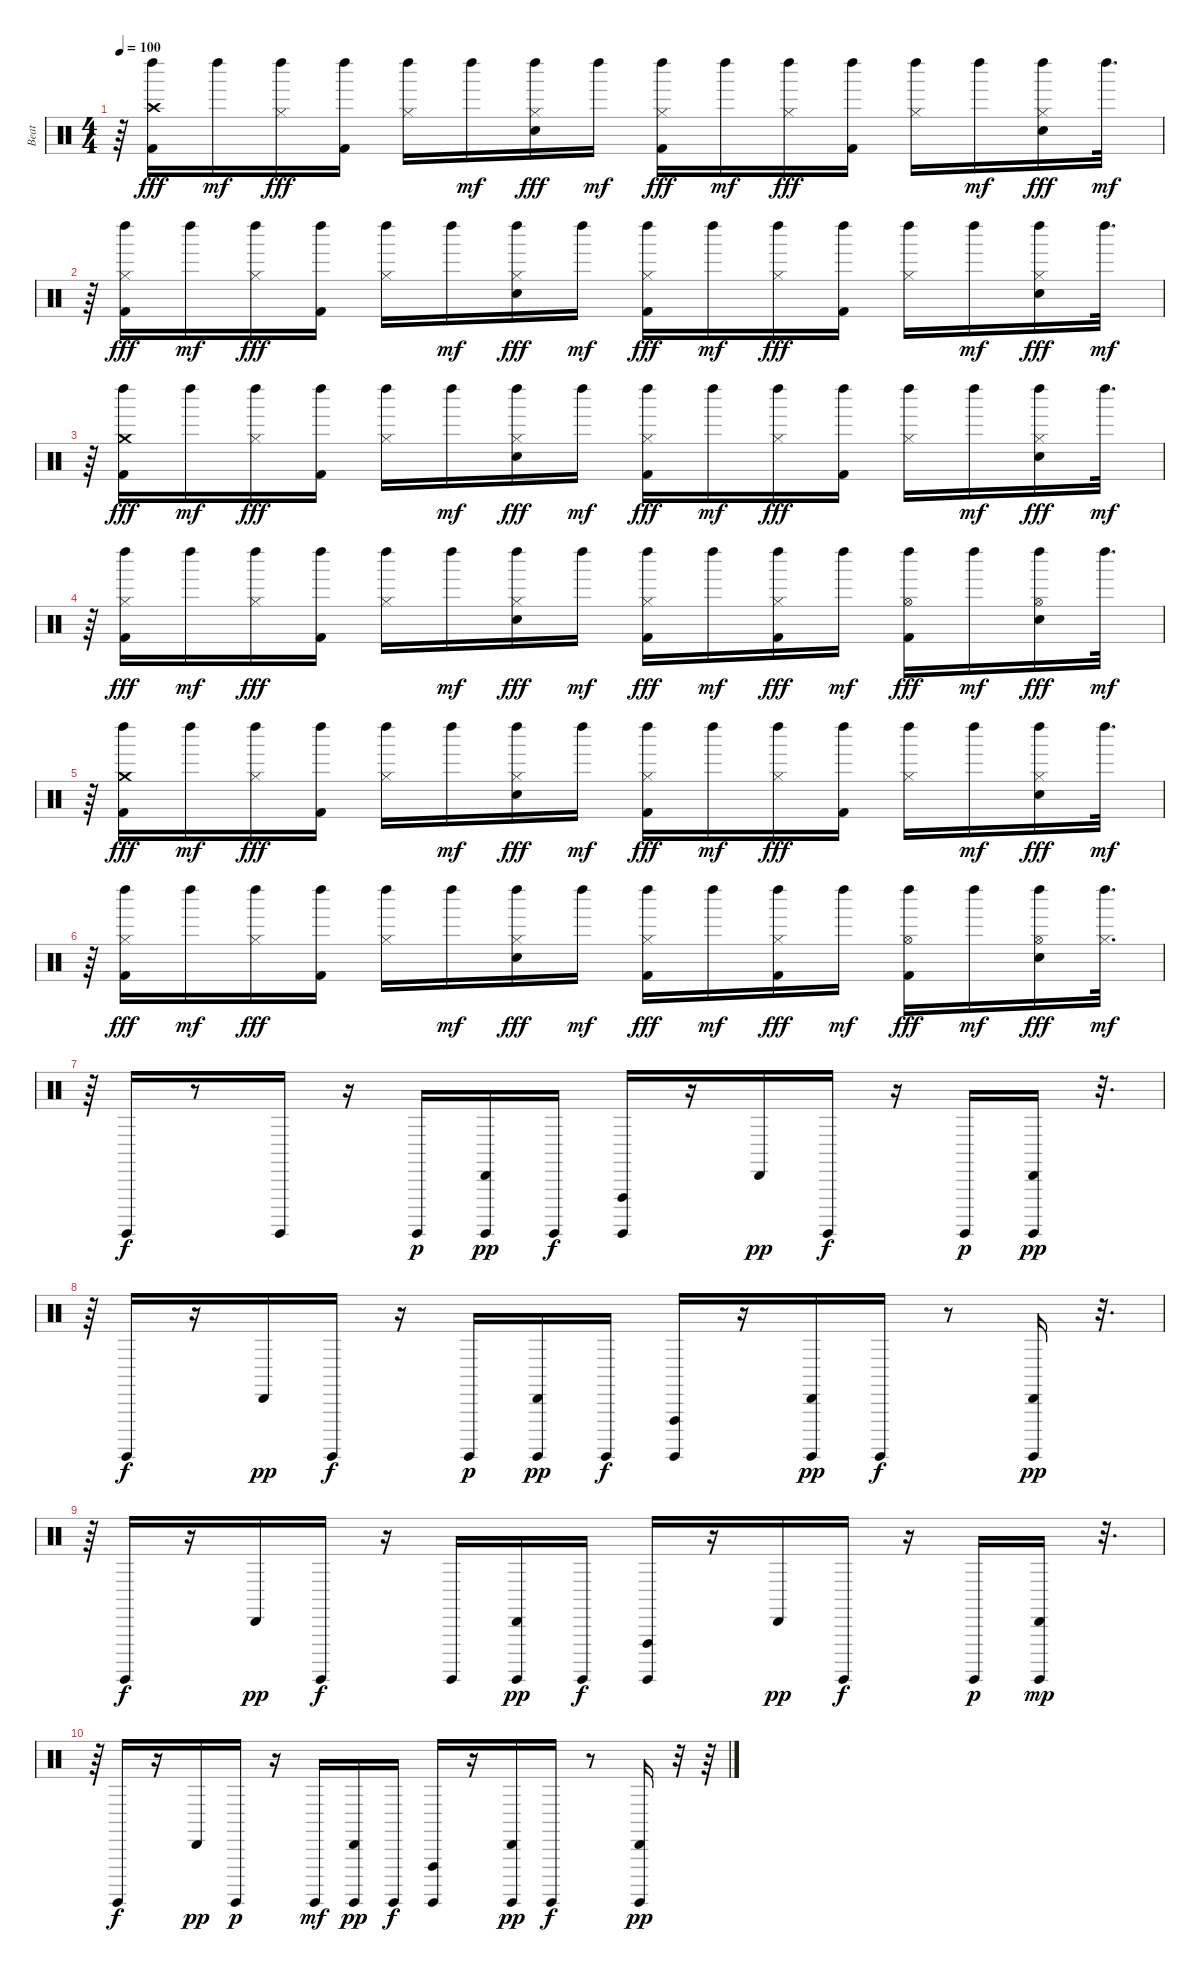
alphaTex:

\track ("Beat" "Beat") {instrument percussion}
\staff {score}
\articulation defaults
\ts (4 4)
\tempo 100
\clef neutral
\ks c
r.64{dy mf} ("Left Maraca (hit)" "Crash high (hit)" "Kick (hit) 2").16{dy fff} "Left Maraca (hit)".16{dy mf} ("Left Maraca (hit)" "Hi-Hat (closed)").16{dy fff} ("Left Maraca (hit)" "Kick (hit) 2").16 ("Left Maraca (hit)" "Hi-Hat (closed)").16 "Left Maraca (hit)".16{dy mf} ("Left Maraca (hit)" "Hi-Hat (closed)" "Electric Snare (hit)").16{dy fff} "Left Maraca (hit)".16{dy mf} ("Left Maraca (hit)" "Hi-Hat (closed)" "Kick (hit) 2").16{dy fff} "Left Maraca (hit)".16{dy mf} ("Left Maraca (hit)" "Hi-Hat (closed)").16{dy fff} ("Left Maraca (hit)" "Kick (hit) 2").16 ("Left Maraca (hit)" "Hi-Hat (closed)").16 "Left Maraca (hit)".16{dy mf} ("Left Maraca (hit)" "Hi-Hat (closed)" "Electric Snare (hit)").16{dy fff} "Left Maraca (hit)".32{d dy mf} |
r.64 ("Left Maraca (hit)" "Hi-Hat (closed)" "Kick (hit) 2").16{dy fff} "Left Maraca (hit)".16{dy mf} ("Left Maraca (hit)" "Hi-Hat (closed)").16{dy fff} ("Left Maraca (hit)" "Kick (hit) 2").16 ("Left Maraca (hit)" "Hi-Hat (closed)").16 "Left Maraca (hit)".16{dy mf} ("Left Maraca (hit)" "Hi-Hat (closed)" "Electric Snare (hit)").16{dy fff} "Left Maraca (hit)".16{dy mf} ("Left Maraca (hit)" "Hi-Hat (closed)" "Kick (hit) 2").16{dy fff} "Left Maraca (hit)".16{dy mf} ("Left Maraca (hit)" "Hi-Hat (closed)").16{dy fff} ("Left Maraca (hit)" "Kick (hit) 2").16 ("Left Maraca (hit)" "Hi-Hat (closed)").16 "Left Maraca (hit)".16{dy mf} ("Left Maraca (hit)" "Hi-Hat (closed)" "Electric Snare (hit)").16{dy fff} "Left Maraca (hit)".32{d dy mf} |
r.64 ("Left Maraca (hit)" "Crash medium (hit)" "Kick (hit) 2").16{dy fff} "Left Maraca (hit)".16{dy mf} ("Left Maraca (hit)" "Hi-Hat (closed)").16{dy fff} ("Left Maraca (hit)" "Kick (hit) 2").16 ("Left Maraca (hit)" "Hi-Hat (closed)").16 "Left Maraca (hit)".16{dy mf} ("Left Maraca (hit)" "Hi-Hat (closed)" "Electric Snare (hit)").16{dy fff} "Left Maraca (hit)".16{dy mf} ("Left Maraca (hit)" "Hi-Hat (closed)" "Kick (hit) 2").16{dy fff} "Left Maraca (hit)".16{dy mf} ("Left Maraca (hit)" "Hi-Hat (closed)").16{dy fff} ("Left Maraca (hit)" "Kick (hit) 2").16 ("Left Maraca (hit)" "Hi-Hat (closed)").16 "Left Maraca (hit)".16{dy mf} ("Left Maraca (hit)" "Hi-Hat (closed)" "Electric Snare (hit)").16{dy fff} "Left Maraca (hit)".32{d dy mf} |
r.64 ("Left Maraca (hit)" "Hi-Hat (closed)" "Kick (hit) 2").16{dy fff} "Left Maraca (hit)".16{dy mf} ("Left Maraca (hit)" "Hi-Hat (closed)").16{dy fff} ("Left Maraca (hit)" "Kick (hit) 2").16 ("Left Maraca (hit)" "Hi-Hat (closed)").16 "Left Maraca (hit)".16{dy mf} ("Left Maraca (hit)" "Hi-Hat (closed)" "Electric Snare (hit)").16{dy fff} "Left Maraca (hit)".16{dy mf} ("Left Maraca (hit)" "Hi-Hat (closed)" "Kick (hit) 2").16{dy fff} "Left Maraca (hit)".16{dy mf} ("Left Maraca (hit)" "Hi-Hat (closed)" "Kick (hit) 2").16{dy fff} "Left Maraca (hit)".16{dy mf} ("Left Maraca (hit)" "Hi-Hat (open)" "Kick (hit) 2").16{dy fff} "Left Maraca (hit)".16{dy mf} ("Left Maraca (hit)" "Hi-Hat (open)" "Electric Snare (hit)").16{dy fff} "Left Maraca (hit)".32{d dy mf} |
r.64 ("Left Maraca (hit)" "Crash medium (hit)" "Kick (hit) 2").16{dy fff} "Left Maraca (hit)".16{dy mf} ("Left Maraca (hit)" "Hi-Hat (closed)").16{dy fff} ("Left Maraca (hit)" "Kick (hit) 2").16 ("Left Maraca (hit)" "Hi-Hat (closed)").16 "Left Maraca (hit)".16{dy mf} ("Left Maraca (hit)" "Hi-Hat (closed)" "Electric Snare (hit)").16{dy fff} "Left Maraca (hit)".16{dy mf} ("Left Maraca (hit)" "Hi-Hat (closed)" "Kick (hit) 2").16{dy fff} "Left Maraca (hit)".16{dy mf} ("Left Maraca (hit)" "Hi-Hat (closed)").16{dy fff} ("Left Maraca (hit)" "Kick (hit) 2").16 ("Left Maraca (hit)" "Hi-Hat (closed)").16 "Left Maraca (hit)".16{dy mf} ("Left Maraca (hit)" "Hi-Hat (closed)" "Electric Snare (hit)").16{dy fff} "Left Maraca (hit)".32{d dy mf} |
r.64 ("Left Maraca (hit)" "Hi-Hat (closed)" "Kick (hit) 2").16{dy fff} "Left Maraca (hit)".16{dy mf} ("Left Maraca (hit)" "Hi-Hat (closed)").16{dy fff} ("Left Maraca (hit)" "Kick (hit) 2").16 ("Left Maraca (hit)" "Hi-Hat (closed)").16 "Left Maraca (hit)".16{dy mf} ("Left Maraca (hit)" "Hi-Hat (closed)" "Electric Snare (hit)").16{dy fff} "Left Maraca (hit)".16{dy mf} ("Left Maraca (hit)" "Hi-Hat (closed)" "Kick (hit) 2").16{dy fff} "Left Maraca (hit)".16{dy mf} ("Left Maraca (hit)" "Hi-Hat (closed)" "Kick (hit) 2").16{dy fff} "Left Maraca (hit)".16{dy mf} ("Left Maraca (hit)" "Hi-Hat (open)" "Kick (hit) 2").16{dy fff} "Left Maraca (hit)".16{dy mf} ("Left Maraca (hit)" "Hi-Hat (open)" "Electric Snare (hit)").16{dy fff} ("Hi-Hat (closed)" "Left Maraca (hit)").32{d dy mf} |
r.64 "Surdo (hit)".16{dy f} r.8 "Surdo (hit)".16 r.16 "Surdo (hit)".16{dy p} ("Surdo (hit)" "Cabasa (hit)").16{dy pp} "Surdo (hit)".16{dy f} ("Surdo (hit)" "Vibraslap (hit)").16 r.16 "Cabasa (hit)".16{dy pp} "Surdo (hit)".16{dy f} r.16 "Surdo (hit)".16{dy p} ("Surdo (hit)" "Cabasa (hit)").16{dy pp} r.32{d} |
r.64 "Surdo (hit)".16{dy f} r.16 "Cabasa (hit)".16{dy pp} "Surdo (hit)".16{dy f} r.16 "Surdo (hit)".16{dy p} ("Surdo (hit)" "Cabasa (hit)").16{dy pp} "Surdo (hit)".16{dy f} ("Surdo (hit)" "Vibraslap (hit)").16 r.16 ("Surdo (hit)" "Cabasa (hit)").16{dy pp} "Surdo (hit)".16{dy f} r.8 ("Surdo (hit)" "Cabasa (hit)").16{dy pp} r.32{d} |
r.64 "Surdo (hit)".16{dy f} r.16 "Cabasa (hit)".16{dy pp} "Surdo (hit)".16{dy f} r.16 "Surdo (hit)".16 ("Cabasa (hit)" "Surdo (hit)").16{dy pp} "Surdo (hit)".16{dy f} ("Vibraslap (hit)" "Surdo (hit)").16 r.16 "Cabasa (hit)".16{dy pp} "Surdo (hit)".16{dy f} r.16 "Surdo (hit)".16{dy p} ("Cabasa (hit)" "Surdo (hit)").16{dy mp} r.32{d} |
r.64 "Surdo (hit)".16{dy f} r.16 "Cabasa (hit)".16{dy pp} "Surdo (hit)".16{dy p} r.16 "Surdo (hit)".16{dy mf} ("Cabasa (hit)" "Surdo (hit)").16{dy pp} "Surdo (hit)".16{dy f} ("Vibraslap (hit)" "Surdo (hit)").16 r.16 ("Cabasa (hit)" "Surdo (hit)").16{dy pp} "Surdo (hit)".16{dy f} r.8 ("Cabasa (hit)" "Surdo (hit)").16{dy pp} r.32 r.64
